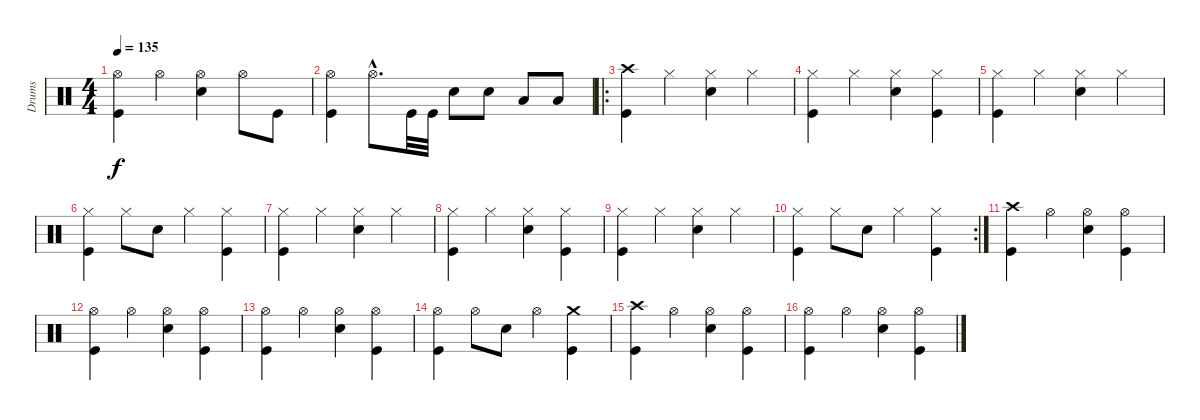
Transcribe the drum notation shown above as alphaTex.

\track ("Drums" "Drums") {instrument percussion}
\staff {score}
\articulation defaults
\ts (4 4)
\tempo 135
\clef neutral
\ks c
("Kick (hit)" "Hi-Hat (open)").4{dy f} "Hi-Hat (open)".4 ("Hi-Hat (open)" "Snare (hit) 2").4 "Hi-Hat (open)".8 "Kick (hit)".8 |
("Kick (hit)" "Hi-Hat (open)").4 "Hi-Hat (open)"{hac}.8{d} "Kick (hit)".32 "Kick (hit)".32 "Snare (hit) 2".8 "Snare (hit) 2".8 "Low Floor Tom (hit)".8 "Low Floor Tom (hit)".8 |
\ro
("Kick (hit)" "Crash high (hit)").4 "Hi-Hat (closed)".4 ("Hi-Hat (closed)" "Snare (hit) 2").4 "Hi-Hat (closed)".4 |
("Kick (hit)" "Hi-Hat (closed)").4 "Hi-Hat (closed)".4 ("Hi-Hat (closed)" "Snare (hit) 2").4 ("Kick (hit)" "Hi-Hat (closed)").4 |
("Kick (hit)" "Hi-Hat (closed)").4 "Hi-Hat (closed)".4 ("Hi-Hat (closed)" "Snare (hit) 2").4 "Hi-Hat (closed)".4 |
("Kick (hit)" "Hi-Hat (closed)").4 "Hi-Hat (closed)".8 "Snare (hit) 2".8 "Hi-Hat (closed)".4 ("Kick (hit)" "Hi-Hat (closed)").4 |
("Kick (hit)" "Hi-Hat (closed)").4 "Hi-Hat (closed)".4 ("Hi-Hat (closed)" "Snare (hit) 2").4 "Hi-Hat (closed)".4 |
("Kick (hit)" "Hi-Hat (closed)").4 "Hi-Hat (closed)".4 ("Hi-Hat (closed)" "Snare (hit) 2").4 ("Kick (hit)" "Hi-Hat (closed)").4 |
("Kick (hit)" "Hi-Hat (closed)").4 "Hi-Hat (closed)".4 ("Hi-Hat (closed)" "Snare (hit) 2").4 "Hi-Hat (closed)".4 |
\rc 2
("Kick (hit)" "Hi-Hat (closed)").4 "Hi-Hat (closed)".8 "Snare (hit) 2".8 "Hi-Hat (closed)".4 ("Kick (hit)" "Hi-Hat (closed)").4 |
("Kick (hit)" "Crash high (hit)").4 "Hi-Hat (open)".4 ("Hi-Hat (open)" "Snare (hit) 2").4 ("Kick (hit)" "Hi-Hat (open)").4 |
("Kick (hit)" "Hi-Hat (open)").4 "Hi-Hat (open)".4 ("Hi-Hat (open)" "Snare (hit) 2").4 ("Kick (hit)" "Hi-Hat (open)").4 |
("Kick (hit)" "Hi-Hat (open)").4 "Hi-Hat (open)".4 ("Hi-Hat (open)" "Snare (hit) 2").4 ("Kick (hit)" "Hi-Hat (open)").4 |
("Kick (hit)" "Hi-Hat (open)").4 "Hi-Hat (open)".8 "Snare (hit) 2".8 "Hi-Hat (open)".4 ("Kick (hit)" "Crash medium (hit)").4 |
("Kick (hit)" "Crash high (hit)").4 "Hi-Hat (open)".4 ("Hi-Hat (open)" "Snare (hit) 2").4 ("Kick (hit)" "Hi-Hat (open)").4 |
("Kick (hit)" "Hi-Hat (open)").4 "Hi-Hat (open)".4 ("Hi-Hat (open)" "Snare (hit) 2").4 ("Kick (hit)" "Hi-Hat (open)").4
